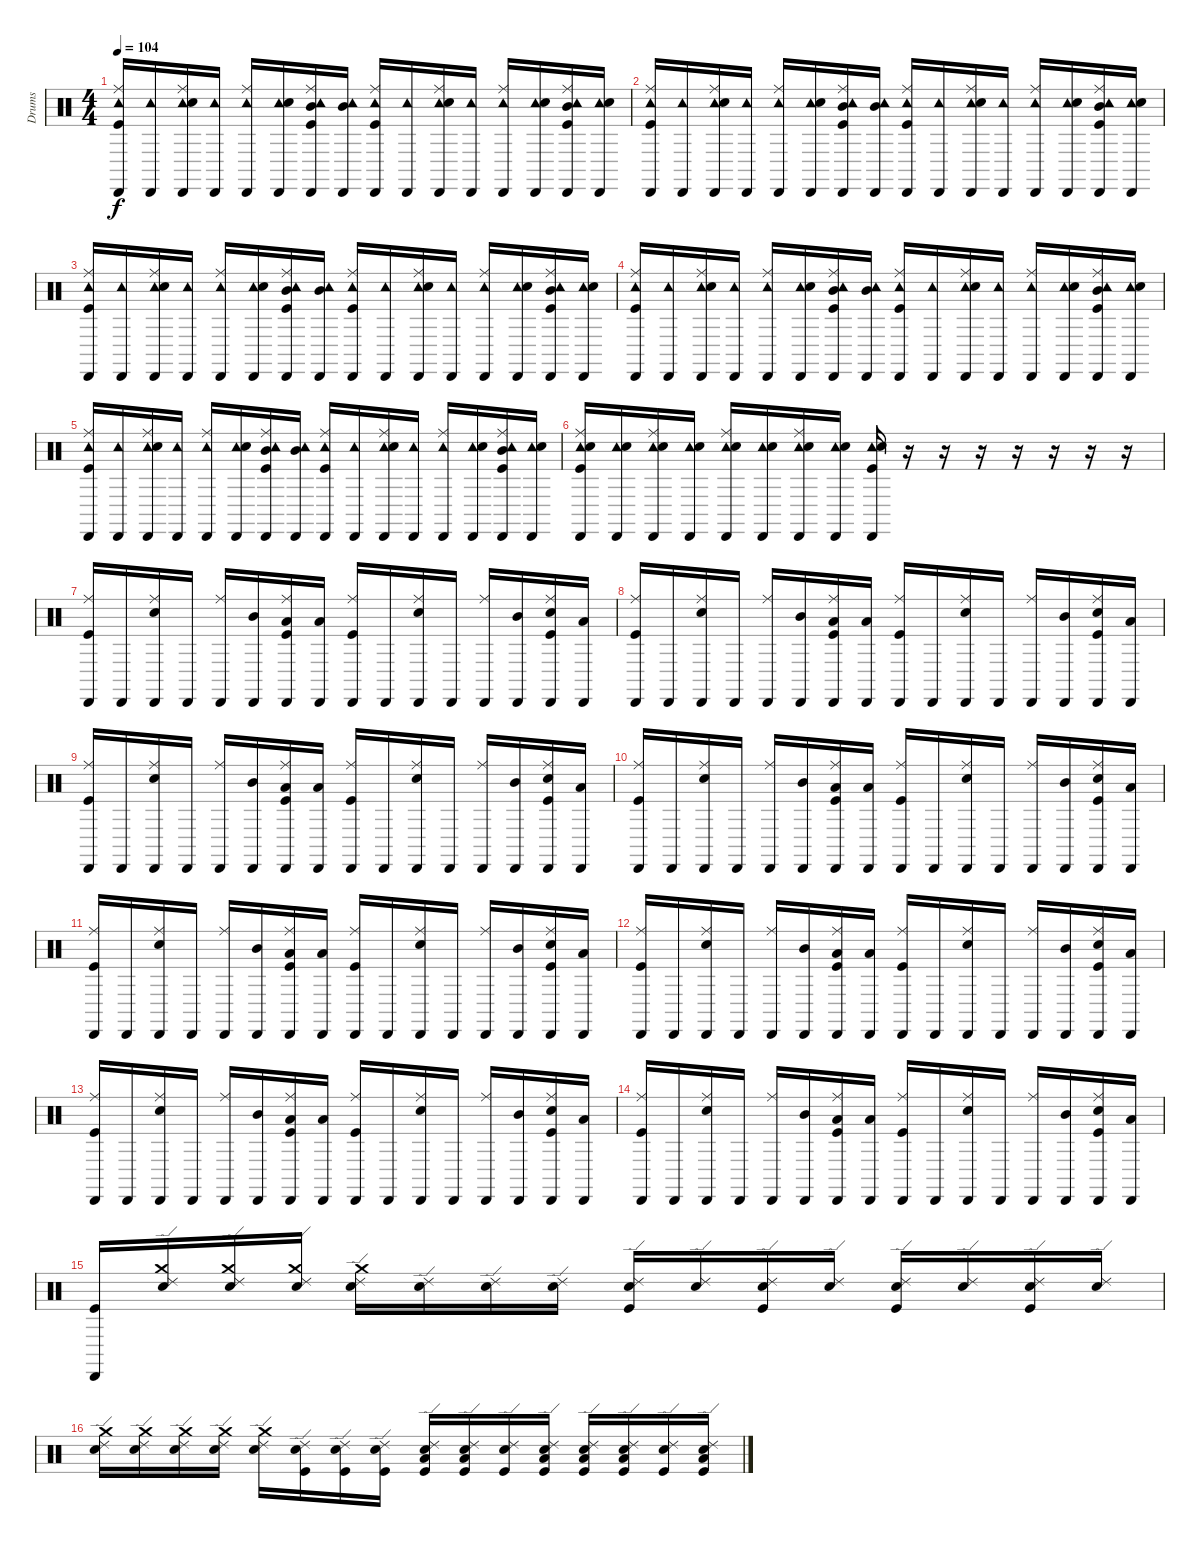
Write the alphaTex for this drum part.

\track ("Drums" "Drums") {instrument percussion}
\staff {score}
\articulation defaults
\ts (4 4)
\tempo 104
\clef neutral
\ks c
("Cabasa (hit)" "Ride (middle)" "Tambourine (hit)" "Kick (hit)").16{dy f} ("Cabasa (hit)" "Tambourine (hit)").16 ("Cabasa (hit)" "Ride (middle)" "Tambourine (hit)" "Electric Snare (hit)").16 ("Cabasa (hit)" "Tambourine (hit)").16 ("Cabasa (hit)" "Ride (middle)" "Tambourine (hit)").16 ("Cabasa (hit)" "Tambourine (hit)" "Electric Snare (hit)").16 ("Cabasa (hit)" "Ride (middle)" "Tambourine (hit)" "Mid Tom (hit)" "Kick (hit)").16 ("Cabasa (hit)" "Tambourine (hit)" "Mid Tom (hit)").16 ("Cabasa (hit)" "Ride (middle)" "Tambourine (hit)" "Kick (hit)").16 ("Cabasa (hit)" "Tambourine (hit)").16 ("Cabasa (hit)" "Ride (middle)" "Tambourine (hit)" "Electric Snare (hit)").16 ("Cabasa (hit)" "Tambourine (hit)").16 ("Cabasa (hit)" "Ride (middle)" "Tambourine (hit)").16 ("Cabasa (hit)" "Tambourine (hit)" "Electric Snare (hit)").16 ("Cabasa (hit)" "Ride (middle)" "Tambourine (hit)" "Mid Tom (hit)" "Kick (hit)").16 ("Cabasa (hit)" "Tambourine (hit)" "Electric Snare (hit)").16 |
("Cabasa (hit)" "Ride (middle)" "Tambourine (hit)" "Kick (hit)").16 ("Cabasa (hit)" "Tambourine (hit)").16 ("Cabasa (hit)" "Ride (middle)" "Tambourine (hit)" "Electric Snare (hit)").16 ("Cabasa (hit)" "Tambourine (hit)").16 ("Cabasa (hit)" "Ride (middle)" "Tambourine (hit)").16 ("Cabasa (hit)" "Tambourine (hit)" "Electric Snare (hit)").16 ("Cabasa (hit)" "Ride (middle)" "Tambourine (hit)" "Mid Tom (hit)" "Kick (hit)").16 ("Cabasa (hit)" "Tambourine (hit)" "Mid Tom (hit)").16 ("Cabasa (hit)" "Ride (middle)" "Tambourine (hit)" "Kick (hit)").16 ("Cabasa (hit)" "Tambourine (hit)").16 ("Cabasa (hit)" "Ride (middle)" "Tambourine (hit)" "Electric Snare (hit)").16 ("Cabasa (hit)" "Tambourine (hit)").16 ("Cabasa (hit)" "Ride (middle)" "Tambourine (hit)").16 ("Cabasa (hit)" "Tambourine (hit)" "Electric Snare (hit)").16 ("Cabasa (hit)" "Ride (middle)" "Tambourine (hit)" "Mid Tom (hit)" "Kick (hit)").16 ("Cabasa (hit)" "Tambourine (hit)" "Electric Snare (hit)").16 |
("Cabasa (hit)" "Ride (middle)" "Tambourine (hit)" "Kick (hit)").16 ("Cabasa (hit)" "Tambourine (hit)").16 ("Cabasa (hit)" "Ride (middle)" "Tambourine (hit)" "Electric Snare (hit)").16 ("Cabasa (hit)" "Tambourine (hit)").16 ("Cabasa (hit)" "Ride (middle)" "Tambourine (hit)").16 ("Cabasa (hit)" "Tambourine (hit)" "Electric Snare (hit)").16 ("Cabasa (hit)" "Ride (middle)" "Tambourine (hit)" "Mid Tom (hit)" "Kick (hit)").16 ("Cabasa (hit)" "Tambourine (hit)" "Mid Tom (hit)").16 ("Cabasa (hit)" "Ride (middle)" "Tambourine (hit)" "Kick (hit)").16 ("Cabasa (hit)" "Tambourine (hit)").16 ("Cabasa (hit)" "Ride (middle)" "Tambourine (hit)" "Electric Snare (hit)").16 ("Cabasa (hit)" "Tambourine (hit)").16 ("Cabasa (hit)" "Ride (middle)" "Tambourine (hit)").16 ("Cabasa (hit)" "Tambourine (hit)" "Electric Snare (hit)").16 ("Cabasa (hit)" "Ride (middle)" "Tambourine (hit)" "Mid Tom (hit)" "Kick (hit)").16 ("Cabasa (hit)" "Tambourine (hit)" "Electric Snare (hit)").16 |
("Cabasa (hit)" "Ride (middle)" "Tambourine (hit)" "Kick (hit)").16 ("Cabasa (hit)" "Tambourine (hit)").16 ("Cabasa (hit)" "Ride (middle)" "Tambourine (hit)" "Electric Snare (hit)").16 ("Cabasa (hit)" "Tambourine (hit)").16 ("Cabasa (hit)" "Ride (middle)" "Tambourine (hit)").16 ("Cabasa (hit)" "Tambourine (hit)" "Electric Snare (hit)").16 ("Cabasa (hit)" "Ride (middle)" "Tambourine (hit)" "Mid Tom (hit)" "Kick (hit)").16 ("Cabasa (hit)" "Tambourine (hit)" "Mid Tom (hit)").16 ("Cabasa (hit)" "Ride (middle)" "Tambourine (hit)" "Kick (hit)").16 ("Cabasa (hit)" "Tambourine (hit)").16 ("Cabasa (hit)" "Ride (middle)" "Tambourine (hit)" "Electric Snare (hit)").16 ("Cabasa (hit)" "Tambourine (hit)").16 ("Cabasa (hit)" "Ride (middle)" "Tambourine (hit)").16 ("Cabasa (hit)" "Tambourine (hit)" "Electric Snare (hit)").16 ("Cabasa (hit)" "Ride (middle)" "Tambourine (hit)" "Mid Tom (hit)" "Kick (hit)").16 ("Cabasa (hit)" "Tambourine (hit)" "Electric Snare (hit)").16 |
("Cabasa (hit)" "Ride (middle)" "Tambourine (hit)" "Kick (hit)").16 ("Cabasa (hit)" "Tambourine (hit)").16 ("Cabasa (hit)" "Ride (middle)" "Tambourine (hit)" "Electric Snare (hit)").16 ("Cabasa (hit)" "Tambourine (hit)").16 ("Cabasa (hit)" "Ride (middle)" "Tambourine (hit)").16 ("Cabasa (hit)" "Tambourine (hit)" "Electric Snare (hit)").16 ("Cabasa (hit)" "Ride (middle)" "Tambourine (hit)" "Mid Tom (hit)" "Kick (hit)").16 ("Cabasa (hit)" "Tambourine (hit)" "Mid Tom (hit)").16 ("Cabasa (hit)" "Ride (middle)" "Tambourine (hit)" "Kick (hit)").16 ("Cabasa (hit)" "Tambourine (hit)").16 ("Cabasa (hit)" "Ride (middle)" "Tambourine (hit)" "Electric Snare (hit)").16 ("Cabasa (hit)" "Tambourine (hit)").16 ("Cabasa (hit)" "Ride (middle)" "Tambourine (hit)").16 ("Cabasa (hit)" "Tambourine (hit)" "Electric Snare (hit)").16 ("Cabasa (hit)" "Ride (middle)" "Tambourine (hit)" "Mid Tom (hit)" "Kick (hit)").16 ("Cabasa (hit)" "Tambourine (hit)" "Electric Snare (hit)").16 |
("Cabasa (hit)" "Ride (middle)" "Tambourine (hit)" "Electric Snare (hit)" "Kick (hit)").16 ("Cabasa (hit)" "Tambourine (hit)" "Electric Snare (hit)").16 ("Cabasa (hit)" "Ride (middle)" "Tambourine (hit)" "Electric Snare (hit)").16 ("Cabasa (hit)" "Tambourine (hit)" "Electric Snare (hit)").16 ("Cabasa (hit)" "Ride (middle)" "Tambourine (hit)" "Electric Snare (hit)").16 ("Cabasa (hit)" "Tambourine (hit)" "Electric Snare (hit)").16 ("Cabasa (hit)" "Ride (middle)" "Tambourine (hit)" "Electric Snare (hit)").16 ("Cabasa (hit)" "Tambourine (hit)" "Electric Snare (hit)").16 ("Cabasa (hit)" "Tambourine (hit)" "Electric Snare (hit)" "Kick (hit)").16 r.16 r.16 r.16 r.16 r.16 r.16 r.16 |
("Cabasa (hit)" "Ride (middle)" "Kick (hit)").16 "Cabasa (hit)".16 ("Cabasa (hit)" "Ride (middle)" "Electric Snare (hit)").16 "Cabasa (hit)".16 ("Cabasa (hit)" "Ride (middle)").16 ("Cabasa (hit)" "Mid Tom (hit)").16 ("Cabasa (hit)" "Ride (middle)" "Low Tom (hit)" "Kick (hit)").16 ("Cabasa (hit)" "Low Tom (hit)").16 ("Cabasa (hit)" "Ride (middle)" "Kick (hit)").16 "Cabasa (hit)".16 ("Cabasa (hit)" "Ride (middle)" "Electric Snare (hit)").16 "Cabasa (hit)".16 ("Cabasa (hit)" "Ride (middle)").16 ("Cabasa (hit)" "Mid Tom (hit)").16 ("Cabasa (hit)" "Ride (middle)" "Electric Snare (hit)" "Kick (hit)").16 ("Cabasa (hit)" "Low Tom (hit)").16 |
("Cabasa (hit)" "Ride (middle)" "Kick (hit)").16 "Cabasa (hit)".16 ("Cabasa (hit)" "Ride (middle)" "Electric Snare (hit)").16 "Cabasa (hit)".16 ("Cabasa (hit)" "Ride (middle)").16 ("Cabasa (hit)" "Mid Tom (hit)").16 ("Cabasa (hit)" "Ride (middle)" "Low Tom (hit)" "Kick (hit)").16 ("Cabasa (hit)" "Low Tom (hit)").16 ("Cabasa (hit)" "Ride (middle)" "Kick (hit)").16 "Cabasa (hit)".16 ("Cabasa (hit)" "Ride (middle)" "Electric Snare (hit)").16 "Cabasa (hit)".16 ("Cabasa (hit)" "Ride (middle)").16 ("Cabasa (hit)" "Mid Tom (hit)").16 ("Cabasa (hit)" "Ride (middle)" "Electric Snare (hit)" "Kick (hit)").16 ("Cabasa (hit)" "Low Tom (hit)").16 |
("Cabasa (hit)" "Ride (middle)" "Kick (hit)").16 "Cabasa (hit)".16 ("Cabasa (hit)" "Ride (middle)" "Electric Snare (hit)").16 "Cabasa (hit)".16 ("Cabasa (hit)" "Ride (middle)").16 ("Cabasa (hit)" "Mid Tom (hit)").16 ("Cabasa (hit)" "Ride (middle)" "Low Tom (hit)" "Kick (hit)").16 ("Cabasa (hit)" "Low Tom (hit)").16 ("Cabasa (hit)" "Ride (middle)" "Kick (hit)").16 "Cabasa (hit)".16 ("Cabasa (hit)" "Ride (middle)" "Electric Snare (hit)").16 "Cabasa (hit)".16 ("Cabasa (hit)" "Ride (middle)").16 ("Cabasa (hit)" "Mid Tom (hit)").16 ("Cabasa (hit)" "Ride (middle)" "Electric Snare (hit)" "Kick (hit)").16 ("Cabasa (hit)" "Low Tom (hit)").16 |
("Cabasa (hit)" "Ride (middle)" "Kick (hit)").16 "Cabasa (hit)".16 ("Cabasa (hit)" "Ride (middle)" "Electric Snare (hit)").16 "Cabasa (hit)".16 ("Cabasa (hit)" "Ride (middle)").16 ("Cabasa (hit)" "Mid Tom (hit)").16 ("Cabasa (hit)" "Ride (middle)" "Low Tom (hit)" "Kick (hit)").16 ("Cabasa (hit)" "Low Tom (hit)").16 ("Cabasa (hit)" "Ride (middle)" "Kick (hit)").16 "Cabasa (hit)".16 ("Cabasa (hit)" "Ride (middle)" "Electric Snare (hit)").16 "Cabasa (hit)".16 ("Cabasa (hit)" "Ride (middle)").16 ("Cabasa (hit)" "Mid Tom (hit)").16 ("Cabasa (hit)" "Ride (middle)" "Electric Snare (hit)" "Kick (hit)").16 ("Cabasa (hit)" "Low Tom (hit)").16 |
("Cabasa (hit)" "Ride (middle)" "Kick (hit)").16 "Cabasa (hit)".16 ("Cabasa (hit)" "Ride (middle)" "Electric Snare (hit)").16 "Cabasa (hit)".16 ("Cabasa (hit)" "Ride (middle)").16 ("Cabasa (hit)" "Mid Tom (hit)").16 ("Cabasa (hit)" "Ride (middle)" "Low Tom (hit)" "Kick (hit)").16 ("Cabasa (hit)" "Low Tom (hit)").16 ("Cabasa (hit)" "Ride (middle)" "Kick (hit)").16 "Cabasa (hit)".16 ("Cabasa (hit)" "Ride (middle)" "Electric Snare (hit)").16 "Cabasa (hit)".16 ("Cabasa (hit)" "Ride (middle)").16 ("Cabasa (hit)" "Mid Tom (hit)").16 ("Cabasa (hit)" "Ride (middle)" "Electric Snare (hit)" "Kick (hit)").16 ("Cabasa (hit)" "Low Tom (hit)").16 |
("Cabasa (hit)" "Ride (middle)" "Kick (hit)").16 "Cabasa (hit)".16 ("Cabasa (hit)" "Ride (middle)" "Electric Snare (hit)").16 "Cabasa (hit)".16 ("Cabasa (hit)" "Ride (middle)").16 ("Cabasa (hit)" "Mid Tom (hit)").16 ("Cabasa (hit)" "Ride (middle)" "Low Tom (hit)" "Kick (hit)").16 ("Cabasa (hit)" "Low Tom (hit)").16 ("Cabasa (hit)" "Ride (middle)" "Kick (hit)").16 "Cabasa (hit)".16 ("Cabasa (hit)" "Ride (middle)" "Electric Snare (hit)").16 "Cabasa (hit)".16 ("Cabasa (hit)" "Ride (middle)").16 ("Cabasa (hit)" "Mid Tom (hit)").16 ("Cabasa (hit)" "Ride (middle)" "Electric Snare (hit)" "Kick (hit)").16 ("Cabasa (hit)" "Low Tom (hit)").16 |
("Cabasa (hit)" "Ride (middle)" "Kick (hit)").16 "Cabasa (hit)".16 ("Cabasa (hit)" "Ride (middle)" "Electric Snare (hit)").16 "Cabasa (hit)".16 ("Cabasa (hit)" "Ride (middle)").16 ("Cabasa (hit)" "Mid Tom (hit)").16 ("Cabasa (hit)" "Ride (middle)" "Low Tom (hit)" "Kick (hit)").16 ("Cabasa (hit)" "Low Tom (hit)").16 ("Cabasa (hit)" "Ride (middle)" "Kick (hit)").16 "Cabasa (hit)".16 ("Cabasa (hit)" "Ride (middle)" "Electric Snare (hit)").16 "Cabasa (hit)".16 ("Cabasa (hit)" "Ride (middle)").16 ("Cabasa (hit)" "Mid Tom (hit)").16 ("Cabasa (hit)" "Ride (middle)" "Electric Snare (hit)" "Kick (hit)").16 ("Cabasa (hit)" "Low Tom (hit)").16 |
("Cabasa (hit)" "Ride (middle)" "Kick (hit)").16 "Cabasa (hit)".16 ("Cabasa (hit)" "Ride (middle)" "Electric Snare (hit)").16 "Cabasa (hit)".16 ("Cabasa (hit)" "Ride (middle)").16 ("Cabasa (hit)" "Mid Tom (hit)").16 ("Cabasa (hit)" "Ride (middle)" "Low Tom (hit)" "Kick (hit)").16 ("Cabasa (hit)" "Low Tom (hit)").16 ("Cabasa (hit)" "Ride (middle)" "Kick (hit)").16 "Cabasa (hit)".16 ("Cabasa (hit)" "Ride (middle)" "Electric Snare (hit)").16 "Cabasa (hit)".16 ("Cabasa (hit)" "Ride (middle)").16 ("Cabasa (hit)" "Mid Tom (hit)").16 ("Cabasa (hit)" "Ride (middle)" "Electric Snare (hit)" "Kick (hit)").16 ("Cabasa (hit)" "Low Tom (hit)").16 |
("Cabasa (hit)" "Kick (hit)").16 ("Ride (edge) 2" "Crash medium (hit)" "Electric Snare (hit)").16 ("Ride (edge) 2" "Crash medium (hit)" "Electric Snare (hit)").16 ("Ride (edge) 2" "Crash medium (hit)" "Electric Snare (hit)").16 ("Ride (edge) 2" "Crash medium (hit)" "Electric Snare (hit)").16 ("Ride (edge) 2" "Electric Snare (hit)").16 ("Ride (edge) 2" "Electric Snare (hit)").16 ("Ride (edge) 2" "Electric Snare (hit)").16 ("Ride (edge) 2" "Electric Snare (hit)" "Kick (hit)").16 ("Ride (edge) 2" "Electric Snare (hit)").16 ("Ride (edge) 2" "Electric Snare (hit)" "Kick (hit)").16 ("Ride (edge) 2" "Electric Snare (hit)").16 ("Ride (edge) 2" "Electric Snare (hit)" "Kick (hit)").16 ("Ride (edge) 2" "Electric Snare (hit)").16 ("Ride (edge) 2" "Electric Snare (hit)" "Kick (hit)").16 ("Ride (edge) 2" "Electric Snare (hit)").16 |
("Ride (edge) 2" "Crash medium (hit)" "Electric Snare (hit)").16 ("Ride (edge) 2" "Crash medium (hit)" "Electric Snare (hit)").16 ("Ride (edge) 2" "Crash medium (hit)" "Electric Snare (hit)").16 ("Ride (edge) 2" "Crash medium (hit)" "Electric Snare (hit)").16 ("Ride (edge) 2" "Crash medium (hit)" "Electric Snare (hit)").16 ("Ride (edge) 2" "Electric Snare (hit)" "Kick (hit)").16 ("Ride (edge) 2" "Electric Snare (hit)" "Kick (hit)").16 ("Ride (edge) 2" "Electric Snare (hit)" "Kick (hit)").16 ("Ride (edge) 2" "Low Tom (hit)" "Electric Snare (hit)" "Kick (hit)").16 ("Ride (edge) 2" "Low Tom (hit)" "Electric Snare (hit)" "Kick (hit)").16 ("Ride (edge) 2" "Electric Snare (hit)" "Kick (hit)").16 ("Ride (edge) 2" "Low Tom (hit)" "Electric Snare (hit)" "Kick (hit)").16 ("Ride (edge) 2" "Low Tom (hit)" "Electric Snare (hit)" "Kick (hit)").16 ("Ride (edge) 2" "Low Tom (hit)" "Electric Snare (hit)" "Kick (hit)").16 ("Ride (edge) 2" "Electric Snare (hit)" "Kick (hit)").16 ("Ride (edge) 2" "Low Tom (hit)" "Electric Snare (hit)" "Kick (hit)").16
